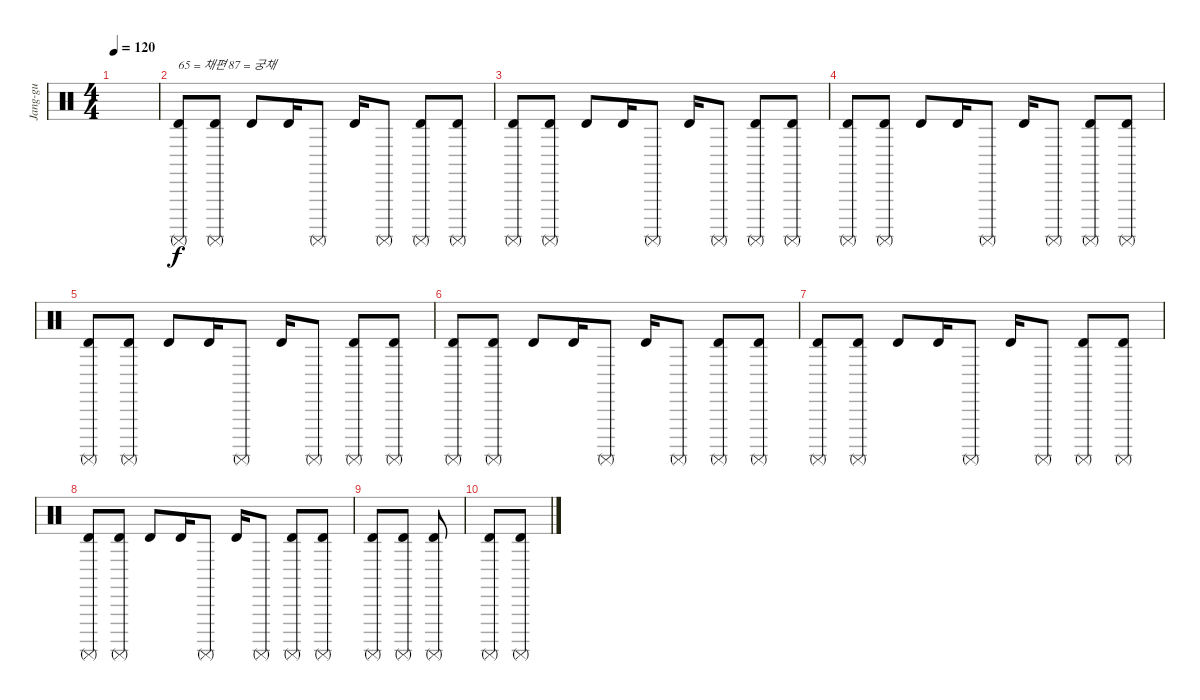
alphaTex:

\track ("Jang-gu" "Jang-gu") {instrument percussion}
\staff {score}
\articulation defaults
\ts (4 4)
\tempo 120
\clef neutral
\ks c
|
("Timbale high (hit)" "Surdo (mute)").8{txt "65 = 채편 87 = 궁채"} ("Timbale high (hit)" "Surdo (mute)").8 "Timbale high (hit)".8 "Timbale high (hit)".16 "Surdo (mute)".8 "Timbale high (hit)".16 "Surdo (mute)".8 ("Timbale high (hit)" "Surdo (mute)").8 ("Timbale high (hit)" "Surdo (mute)").8 |
("Timbale high (hit)" "Surdo (mute)").8 ("Timbale high (hit)" "Surdo (mute)").8 "Timbale high (hit)".8 "Timbale high (hit)".16 "Surdo (mute)".8 "Timbale high (hit)".16 "Surdo (mute)".8 ("Timbale high (hit)" "Surdo (mute)").8 ("Timbale high (hit)" "Surdo (mute)").8 |
("Timbale high (hit)" "Surdo (mute)").8 ("Timbale high (hit)" "Surdo (mute)").8 "Timbale high (hit)".8 "Timbale high (hit)".16 "Surdo (mute)".8 "Timbale high (hit)".16 "Surdo (mute)".8 ("Timbale high (hit)" "Surdo (mute)").8 ("Timbale high (hit)" "Surdo (mute)").8 |
("Timbale high (hit)" "Surdo (mute)").8 ("Timbale high (hit)" "Surdo (mute)").8 "Timbale high (hit)".8 "Timbale high (hit)".16 "Surdo (mute)".8 "Timbale high (hit)".16 "Surdo (mute)".8 ("Timbale high (hit)" "Surdo (mute)").8 ("Timbale high (hit)" "Surdo (mute)").8 |
("Timbale high (hit)" "Surdo (mute)").8 ("Timbale high (hit)" "Surdo (mute)").8 "Timbale high (hit)".8 "Timbale high (hit)".16 "Surdo (mute)".8 "Timbale high (hit)".16 "Surdo (mute)".8 ("Timbale high (hit)" "Surdo (mute)").8 ("Timbale high (hit)" "Surdo (mute)").8 |
("Timbale high (hit)" "Surdo (mute)").8 ("Timbale high (hit)" "Surdo (mute)").8 "Timbale high (hit)".8 "Timbale high (hit)".16 "Surdo (mute)".8 "Timbale high (hit)".16 "Surdo (mute)".8 ("Timbale high (hit)" "Surdo (mute)").8 ("Timbale high (hit)" "Surdo (mute)").8 |
("Timbale high (hit)" "Surdo (mute)").8 ("Timbale high (hit)" "Surdo (mute)").8 "Timbale high (hit)".8 "Timbale high (hit)".16 "Surdo (mute)".8 "Timbale high (hit)".16 "Surdo (mute)".8 ("Timbale high (hit)" "Surdo (mute)").8 ("Timbale high (hit)" "Surdo (mute)").8 |
("Timbale high (hit)" "Surdo (mute)").8 ("Timbale high (hit)" "Surdo (mute)").8 ("Timbale high (hit)" "Surdo (mute)").8 |
("Timbale high (hit)" "Surdo (mute)").8 ("Timbale high (hit)" "Surdo (mute)").8
